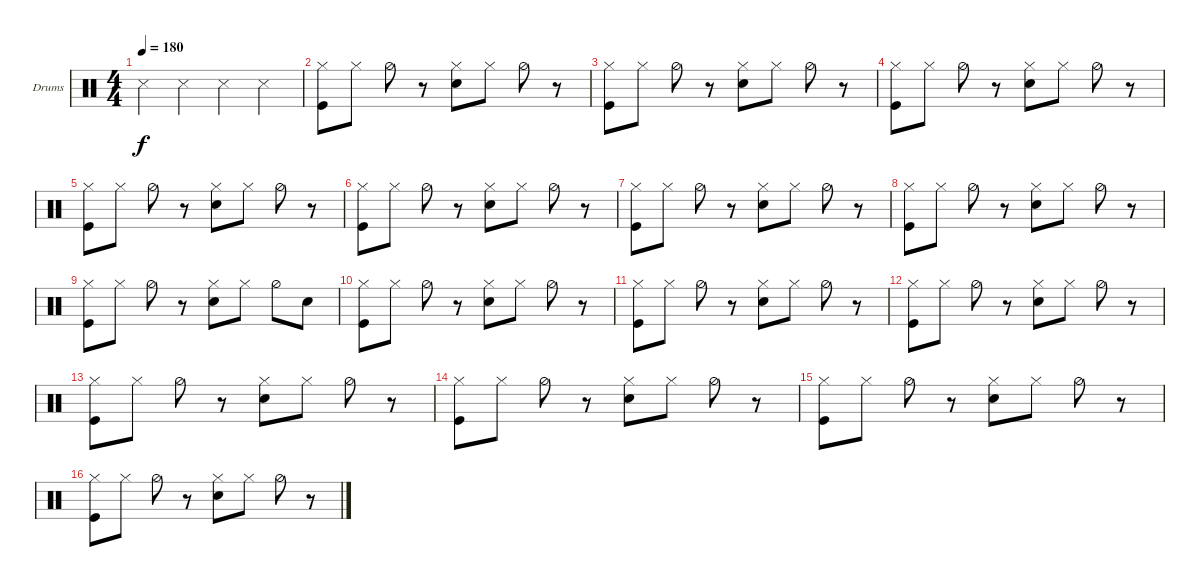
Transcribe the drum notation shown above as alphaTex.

\defaultSystemsLayout 4
\bracketExtendMode groupsimilarinstruments
\firstSystemTrackNameOrientation horizontal
\otherSystemsTrackNameOrientation horizontal
\track ("Drumkit" "Drums") {instrument percussion}
\staff {score}
\articulation defaults
\ts (4 4)
\tempo 180
\clef neutral
\ks c "Snare (side stick) 3".4{dy f} "Snare (side stick) 3".4 "Snare (side stick) 3".4 "Snare (side stick) 3".4
|
("Kick (hit)" "Hi-Hat (closed)").8 "Hi-Hat (closed)".8 "Hi-Hat (half)".8 r.8 ("Snare (hit) 2" "Hi-Hat (closed)").8 "Hi-Hat (closed)".8 "Hi-Hat (half)".8 r.8 |
("Kick (hit)" "Hi-Hat (closed)").8 "Hi-Hat (closed)".8 "Hi-Hat (half)".8 r.8 ("Snare (hit) 2" "Hi-Hat (closed)").8 "Hi-Hat (closed)".8 "Hi-Hat (half)".8 r.8 |
("Kick (hit)" "Hi-Hat (closed)").8 "Hi-Hat (closed)".8 "Hi-Hat (half)".8 r.8 ("Snare (hit) 2" "Hi-Hat (closed)").8 "Hi-Hat (closed)".8 "Hi-Hat (half)".8 r.8 |
("Kick (hit)" "Hi-Hat (closed)").8 "Hi-Hat (closed)".8 "Hi-Hat (half)".8 r.8 ("Snare (hit) 2" "Hi-Hat (closed)").8 "Hi-Hat (closed)".8 "Hi-Hat (half)".8 r.8 |
("Kick (hit)" "Hi-Hat (closed)").8 "Hi-Hat (closed)".8 "Hi-Hat (half)".8 r.8 ("Snare (hit) 2" "Hi-Hat (closed)").8 "Hi-Hat (closed)".8 "Hi-Hat (half)".8 r.8 |
("Kick (hit)" "Hi-Hat (closed)").8 "Hi-Hat (closed)".8 "Hi-Hat (half)".8 r.8 ("Snare (hit) 2" "Hi-Hat (closed)").8 "Hi-Hat (closed)".8 "Hi-Hat (half)".8 r.8 |
("Kick (hit)" "Hi-Hat (closed)").8 "Hi-Hat (closed)".8 "Hi-Hat (half)".8 r.8 ("Snare (hit) 2" "Hi-Hat (closed)").8 "Hi-Hat (closed)".8 "Hi-Hat (half)".8 r.8 |
("Kick (hit)" "Hi-Hat (closed)").8 "Hi-Hat (closed)".8 "Hi-Hat (half)".8 r.8 ("Snare (hit) 2" "Hi-Hat (closed)").8 "Hi-Hat (closed)".8 "Hi-Hat (half)".8 "Snare (hit) 2".8 |
("Kick (hit)" "Hi-Hat (closed)").8 "Hi-Hat (closed)".8 "Hi-Hat (half)".8 r.8 ("Snare (hit) 2" "Hi-Hat (closed)").8 "Hi-Hat (closed)".8 "Hi-Hat (half)".8 r.8 |
("Kick (hit)" "Hi-Hat (closed)").8 "Hi-Hat (closed)".8 "Hi-Hat (half)".8 r.8 ("Snare (hit) 2" "Hi-Hat (closed)").8 "Hi-Hat (closed)".8 "Hi-Hat (half)".8 r.8 |
("Kick (hit)" "Hi-Hat (closed)").8 "Hi-Hat (closed)".8 "Hi-Hat (half)".8 r.8 ("Snare (hit) 2" "Hi-Hat (closed)").8 "Hi-Hat (closed)".8 "Hi-Hat (half)".8 r.8 |
("Kick (hit)" "Hi-Hat (closed)").8 "Hi-Hat (closed)".8 "Hi-Hat (half)".8 r.8 ("Snare (hit) 2" "Hi-Hat (closed)").8 "Hi-Hat (closed)".8 "Hi-Hat (half)".8 r.8 |
("Kick (hit)" "Hi-Hat (closed)").8 "Hi-Hat (closed)".8 "Hi-Hat (half)".8 r.8 ("Snare (hit) 2" "Hi-Hat (closed)").8 "Hi-Hat (closed)".8 "Hi-Hat (half)".8 r.8 |
("Kick (hit)" "Hi-Hat (closed)").8 "Hi-Hat (closed)".8 "Hi-Hat (half)".8 r.8 ("Snare (hit) 2" "Hi-Hat (closed)").8 "Hi-Hat (closed)".8 "Hi-Hat (half)".8 r.8 |
("Kick (hit)" "Hi-Hat (closed)").8 "Hi-Hat (closed)".8 "Hi-Hat (half)".8 r.8 ("Snare (hit) 2" "Hi-Hat (closed)").8 "Hi-Hat (closed)".8 "Hi-Hat (half)".8 r.8
